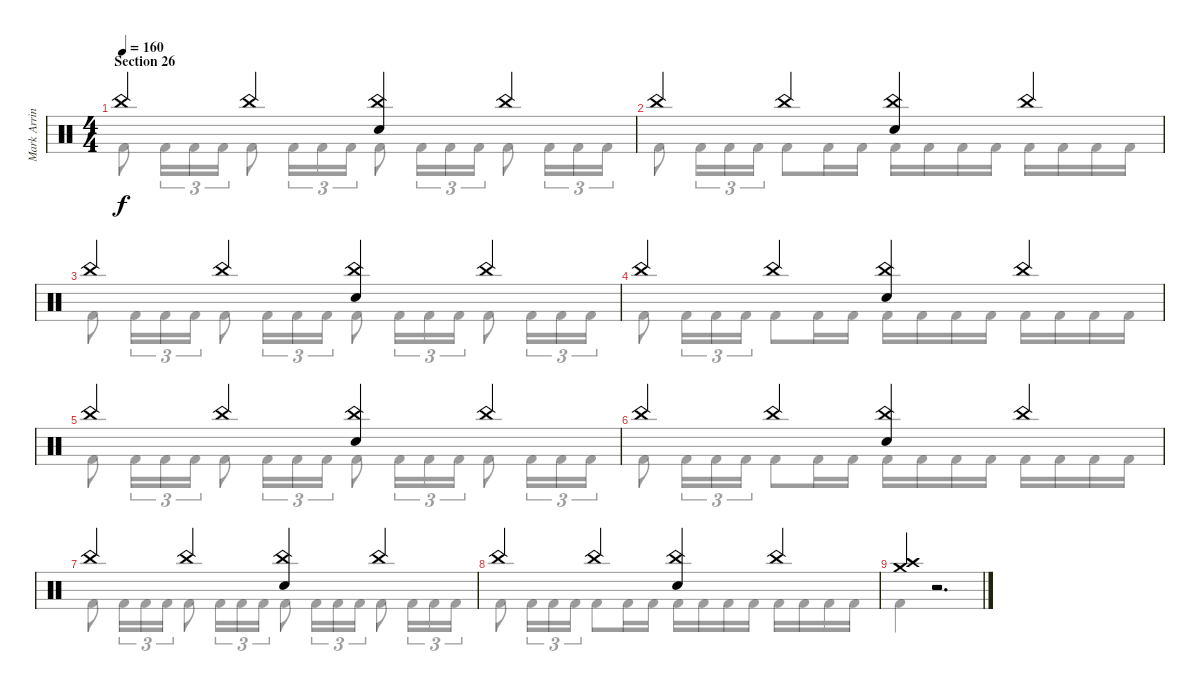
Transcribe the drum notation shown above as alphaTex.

\track ("Mark Arrington – drums" "Mark Arrin") {instrument percussion}
\staff {score}
\articulation defaults
\voice
\ts (4 4)
\section ("" "Section 26")
\tempo 160
\clef neutral
\ks c "China (hit)".4{dy f} "China (hit)".4
("China (hit)" "Electric Snare (hit)").4 "China (hit)".4 |
"China (hit)".4 "China (hit)".4 ("China (hit)" "Electric Snare (hit)").4 "China (hit)".4 |
"China (hit)".4 "China (hit)".4 ("China (hit)" "Electric Snare (hit)").4 "China (hit)".4 |
"China (hit)".4 "China (hit)".4 ("China (hit)" "Electric Snare (hit)").4 "China (hit)".4 |
"China (hit)".4 "China (hit)".4 ("China (hit)" "Electric Snare (hit)").4 "China (hit)".4 |
"China (hit)".4 "China (hit)".4 ("China (hit)" "Electric Snare (hit)").4 "China (hit)".4 |
"China (hit)".4 "China (hit)".4 ("China (hit)" "Electric Snare (hit)").4 "China (hit)".4 |
"China (hit)".4 "China (hit)".4 ("China (hit)" "Electric Snare (hit)").4 "China (hit)".4 |
("Crash medium (hit)" "Crash high (hit)").4 r.2{d}
\voice
\clef neutral
\ottava regular
\simile none
\ks c "Kick (hit) 2".8{dy f} "Kick (hit) 2".16{tu (3 2)} "Kick (hit) 2".16{tu (3 2)} "Kick (hit) 2".16{tu (3 2)} "Kick (hit) 2".8 "Kick (hit) 2".16{tu (3 2)} "Kick (hit) 2".16{tu (3 2)} "Kick (hit) 2".16{tu (3 2)} "Kick (hit) 2".8 "Kick (hit) 2".16{tu (3 2)} "Kick (hit) 2".16{tu (3 2)} "Kick (hit) 2".16{tu (3 2)} "Kick (hit) 2".8 "Kick (hit) 2".16{tu (3 2)} "Kick (hit) 2".16{tu (3 2)} "Kick (hit) 2".16{tu (3 2)}
|
"Kick (hit) 2".8 "Kick (hit) 2".16{tu (3 2)} "Kick (hit) 2".16{tu (3 2)} "Kick (hit) 2".16{tu (3 2)} "Kick (hit) 2".8 "Kick (hit) 2".16 "Kick (hit) 2".16 "Kick (hit) 2".16 "Kick (hit) 2".16 "Kick (hit) 2".16 "Kick (hit) 2".16 "Kick (hit) 2".16 "Kick (hit) 2".16 "Kick (hit) 2".16 "Kick (hit) 2".16 |
"Kick (hit) 2".8 "Kick (hit) 2".16{tu (3 2)} "Kick (hit) 2".16{tu (3 2)} "Kick (hit) 2".16{tu (3 2)} "Kick (hit) 2".8 "Kick (hit) 2".16{tu (3 2)} "Kick (hit) 2".16{tu (3 2)} "Kick (hit) 2".16{tu (3 2)} "Kick (hit) 2".8 "Kick (hit) 2".16{tu (3 2)} "Kick (hit) 2".16{tu (3 2)} "Kick (hit) 2".16{tu (3 2)} "Kick (hit) 2".8 "Kick (hit) 2".16{tu (3 2)} "Kick (hit) 2".16{tu (3 2)} "Kick (hit) 2".16{tu (3 2)} |
"Kick (hit) 2".8 "Kick (hit) 2".16{tu (3 2)} "Kick (hit) 2".16{tu (3 2)} "Kick (hit) 2".16{tu (3 2)} "Kick (hit) 2".8 "Kick (hit) 2".16 "Kick (hit) 2".16 "Kick (hit) 2".16 "Kick (hit) 2".16 "Kick (hit) 2".16 "Kick (hit) 2".16 "Kick (hit) 2".16 "Kick (hit) 2".16 "Kick (hit) 2".16 "Kick (hit) 2".16 |
"Kick (hit) 2".8 "Kick (hit) 2".16{tu (3 2)} "Kick (hit) 2".16{tu (3 2)} "Kick (hit) 2".16{tu (3 2)} "Kick (hit) 2".8 "Kick (hit) 2".16{tu (3 2)} "Kick (hit) 2".16{tu (3 2)} "Kick (hit) 2".16{tu (3 2)} "Kick (hit) 2".8 "Kick (hit) 2".16{tu (3 2)} "Kick (hit) 2".16{tu (3 2)} "Kick (hit) 2".16{tu (3 2)} "Kick (hit) 2".8 "Kick (hit) 2".16{tu (3 2)} "Kick (hit) 2".16{tu (3 2)} "Kick (hit) 2".16{tu (3 2)} |
"Kick (hit) 2".8 "Kick (hit) 2".16{tu (3 2)} "Kick (hit) 2".16{tu (3 2)} "Kick (hit) 2".16{tu (3 2)} "Kick (hit) 2".8 "Kick (hit) 2".16 "Kick (hit) 2".16 "Kick (hit) 2".16 "Kick (hit) 2".16 "Kick (hit) 2".16 "Kick (hit) 2".16 "Kick (hit) 2".16 "Kick (hit) 2".16 "Kick (hit) 2".16 "Kick (hit) 2".16 |
"Kick (hit) 2".8 "Kick (hit) 2".16{tu (3 2)} "Kick (hit) 2".16{tu (3 2)} "Kick (hit) 2".16{tu (3 2)} "Kick (hit) 2".8 "Kick (hit) 2".16{tu (3 2)} "Kick (hit) 2".16{tu (3 2)} "Kick (hit) 2".16{tu (3 2)} "Kick (hit) 2".8 "Kick (hit) 2".16{tu (3 2)} "Kick (hit) 2".16{tu (3 2)} "Kick (hit) 2".16{tu (3 2)} "Kick (hit) 2".8 "Kick (hit) 2".16{tu (3 2)} "Kick (hit) 2".16{tu (3 2)} "Kick (hit) 2".16{tu (3 2)} |
"Kick (hit) 2".8 "Kick (hit) 2".16{tu (3 2)} "Kick (hit) 2".16{tu (3 2)} "Kick (hit) 2".16{tu (3 2)} "Kick (hit) 2".8 "Kick (hit) 2".16 "Kick (hit) 2".16 "Kick (hit) 2".16 "Kick (hit) 2".16 "Kick (hit) 2".16 "Kick (hit) 2".16 "Kick (hit) 2".16 "Kick (hit) 2".16 "Kick (hit) 2".16 "Kick (hit) 2".16 |
"Kick (hit) 2".4 r.2{d}
